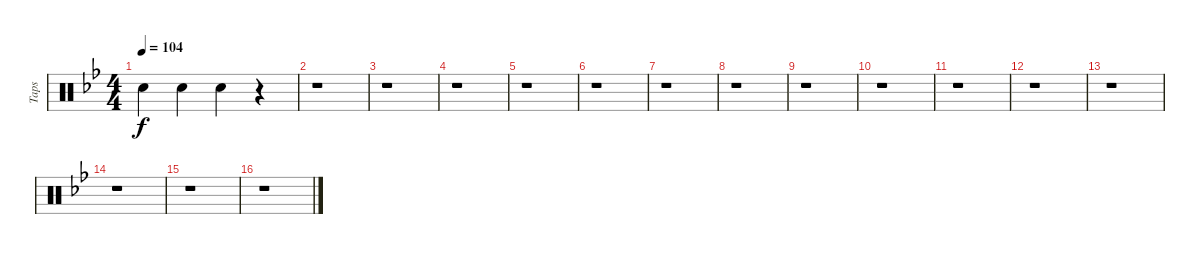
\track ("Taps" "Taps") {instrument percussion}
\staff {score}
\articulation defaults
\ts (4 4)
\tempo 104
\clef neutral
\ks bb "Hand Clap (hit)".4{dy f} "Hand Clap (hit)".4 "Hand Clap (hit)".4
r.4 |
r.1 |
r.1 |
r.1 |
r.1 |
r.1 |
r.1 |
r.1 |
r.1 |
r.1 |
r.1 |
r.1 |
r.1 |
r.1 |
r.1 |
r.1
